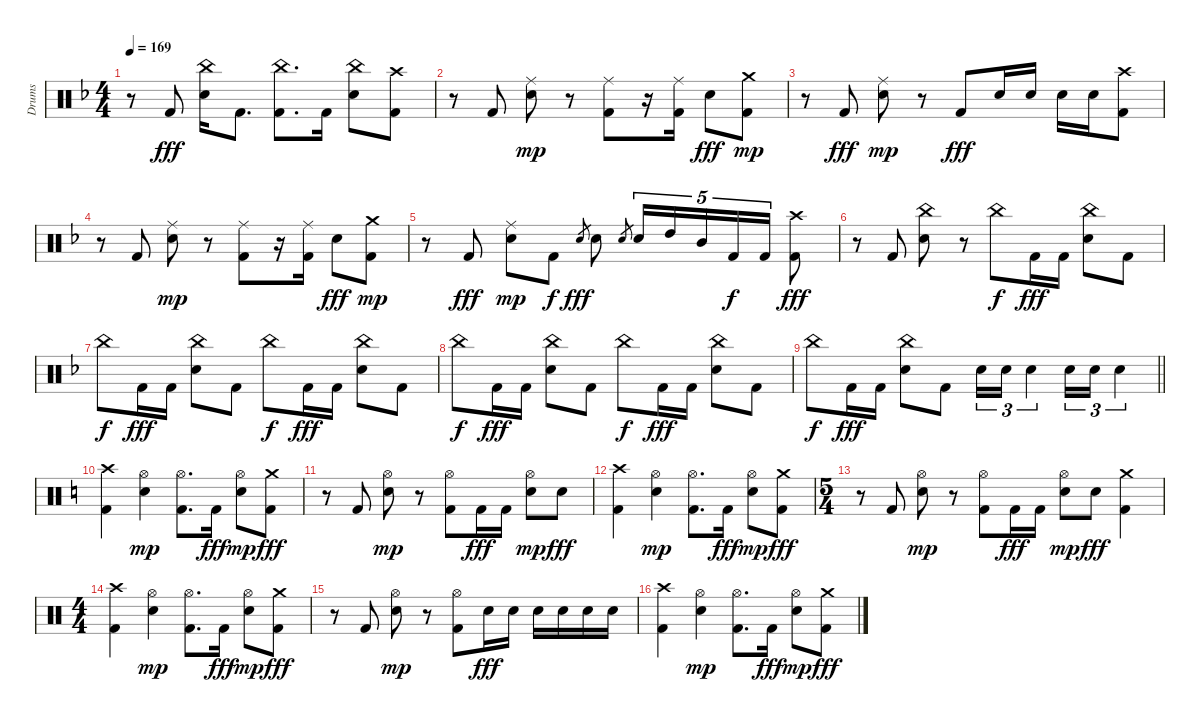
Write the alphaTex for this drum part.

\track ("Drums" "Drums") {instrument percussion}
\staff {score}
\articulation defaults
\ts (4 4)
\tempo 169
\clef neutral
\ks f
r.8{dy fff} "Kick (hit) 2".8 ("Electric Snare (hit)" "China (hit)").16 "Kick (hit) 2".8{d} ("Kick (hit) 2" "China (hit)").8{d} "Kick (hit) 2".16 ("Electric Snare (hit)" "China (hit)").8 ("Kick (hit) 2" "Crash high (hit)").8 |
r.8 "Kick (hit) 2".8 ("Electric Snare (hit)" "Ride (middle)").8{dy mp} r.8 ("Kick (hit) 2" "Ride (middle)").8 r.16 ("Kick (hit) 2" "Ride (middle)").16 "Electric Snare (hit)".8{dy fff} ("Kick (hit) 2" "Crash medium (hit)").8{dy mp} |
r.8 "Kick (hit) 2".8{dy fff} ("Electric Snare (hit)" "Ride (middle)").8{dy mp} r.8 "Kick (hit) 2".8{dy fff} "Electric Snare (hit)".16 "Electric Snare (hit)".16 "Electric Snare (hit)".16 "Electric Snare (hit)".16 ("Kick (hit) 2" "Crash high (hit)").8 |
r.8 "Kick (hit) 2".8 ("Electric Snare (hit)" "Ride (middle)").8{dy mp} r.8 ("Kick (hit) 2" "Ride (middle)").8 r.16 ("Kick (hit) 2" "Ride (middle)").16 "Electric Snare (hit)".8{dy fff} ("Kick (hit) 2" "Crash medium (hit)").8{dy mp} |
r.8 "Kick (hit) 2".8{dy fff} ("Electric Snare (hit)" "Ride (middle)").8{dy mp} "Kick (hit) 2".8{dy f} "Electric Snare (hit)".8{gr dy fff} "Electric Snare (hit)".8 "Electric Snare (hit)".8{gr} "Electric Snare (hit)".16{tu (5 4)} "High Tom (hit)".16{tu (5 4)} "Mid Tom (hit)".16{tu (5 4)} "Kick (hit) 2".16{tu (5 4) dy f} "Kick (hit) 2".16{tu (5 4)} ("Kick (hit) 2" "Crash high (hit)").8{dy fff} |
r.8 "Kick (hit) 2".8 ("Electric Snare (hit)" "China (hit)").8 r.8 "China (hit)".8{dy f} "Kick (hit) 2".16{dy fff} "Kick (hit) 2".16 ("Electric Snare (hit)" "China (hit)").8 "Kick (hit) 2".8 |
"China (hit)".8{dy f} "Kick (hit) 2".16{dy fff} "Kick (hit) 2".16 ("Electric Snare (hit)" "China (hit)").8 "Kick (hit) 2".8 "China (hit)".8{dy f} "Kick (hit) 2".16{dy fff} "Kick (hit) 2".16 ("Electric Snare (hit)" "China (hit)").8 "Kick (hit) 2".8 |
"China (hit)".8{dy f} "Kick (hit) 2".16{dy fff} "Kick (hit) 2".16 ("Electric Snare (hit)" "China (hit)").8 "Kick (hit) 2".8 "China (hit)".8{dy f} "Kick (hit) 2".16{dy fff} "Kick (hit) 2".16 ("Electric Snare (hit)" "China (hit)").8 "Kick (hit) 2".8 |
\barLineRight lightlight "China (hit)".8{dy f} "Kick (hit) 2".16{dy fff} "Kick (hit) 2".16
("Electric Snare (hit)" "China (hit)").8 "Kick (hit) 2".8 "Electric Snare (hit)".16{tu (3 2)} "Electric Snare (hit)".16{tu (3 2)} "Electric Snare (hit)".4{tu (3 2)} "Electric Snare (hit)".16{tu (3 2)} "Electric Snare (hit)".16{tu (3 2)} "Electric Snare (hit)".4{tu (3 2)} |
\ks c
("Kick (hit) 2" "Crash high (hit)").4 ("Electric Snare (hit)" "Hi-Hat (open)").4{dy mp} ("Kick (hit) 2" "Hi-Hat (open)").8{d} "Kick (hit) 2".16{dy fff} ("Electric Snare (hit)" "Hi-Hat (open)").8{dy mp} ("Kick (hit) 2" "Crash medium (hit)").8{dy fff} |
r.8 "Kick (hit) 2".8 ("Electric Snare (hit)" "Hi-Hat (open)").8{dy mp} r.8 ("Kick (hit) 2" "Hi-Hat (open)").8 "Kick (hit) 2".16{dy fff} "Kick (hit) 2".16 ("Electric Snare (hit)" "Hi-Hat (open)").8{dy mp} "Electric Snare (hit)".8{dy fff} |
("Kick (hit) 2" "Crash high (hit)").4 ("Electric Snare (hit)" "Hi-Hat (open)").4{dy mp} ("Kick (hit) 2" "Hi-Hat (open)").8{d} "Kick (hit) 2".16{dy fff} ("Electric Snare (hit)" "Hi-Hat (open)").8{dy mp} ("Kick (hit) 2" "Crash medium (hit)").8{dy fff} |
\ts (5 4)
r.8 "Kick (hit) 2".8 ("Electric Snare (hit)" "Hi-Hat (open)").8{dy mp} r.8 ("Kick (hit) 2" "Hi-Hat (open)").8 "Kick (hit) 2".16{dy fff} "Kick (hit) 2".16 ("Electric Snare (hit)" "Hi-Hat (open)").8{dy mp} "Electric Snare (hit)".8{dy fff} ("Kick (hit) 2" "Crash medium (hit)").4 |
\ts (4 4)
("Kick (hit) 2" "Crash high (hit)").4 ("Electric Snare (hit)" "Hi-Hat (open)").4{dy mp} ("Kick (hit) 2" "Hi-Hat (open)").8{d} "Kick (hit) 2".16{dy fff} ("Electric Snare (hit)" "Hi-Hat (open)").8{dy mp} ("Kick (hit) 2" "Crash medium (hit)").8{dy fff} |
r.8 "Kick (hit) 2".8 ("Electric Snare (hit)" "Hi-Hat (open)").8{dy mp} r.8 ("Kick (hit) 2" "Hi-Hat (open)").8 "Electric Snare (hit)".16{dy fff} "Electric Snare (hit)".16 "Electric Snare (hit)".16 "Electric Snare (hit)".16 "Electric Snare (hit)".16 "Electric Snare (hit)".16 |
("Kick (hit) 2" "Crash high (hit)").4 ("Electric Snare (hit)" "Hi-Hat (open)").4{dy mp} ("Kick (hit) 2" "Hi-Hat (open)").8{d} "Kick (hit) 2".16{dy fff} ("Electric Snare (hit)" "Hi-Hat (open)").8{dy mp} ("Kick (hit) 2" "Crash medium (hit)").8{dy fff}
